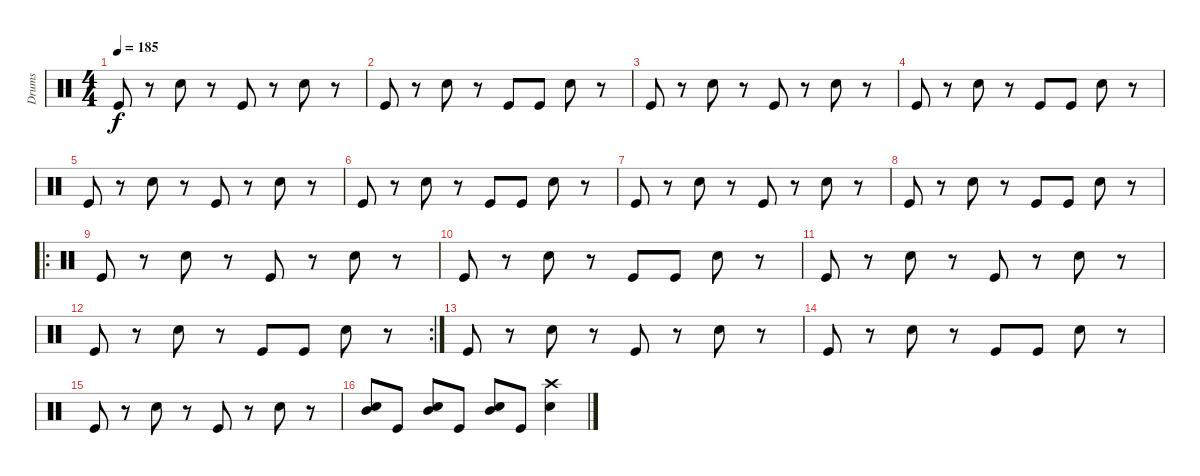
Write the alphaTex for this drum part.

\track ("Drums" "Drums") {instrument percussion}
\staff {score}
\articulation defaults
\ts (4 4)
\tempo 185
\clef neutral
\ks c "Kick (hit)".8{dy f}
r.8 "Snare (hit) 2".8 r.8 "Kick (hit)".8 r.8 "Snare (hit) 2".8 r.8 |
"Kick (hit)".8 r.8 "Snare (hit) 2".8 r.8 "Kick (hit)".8 "Kick (hit)".8 "Snare (hit) 2".8 r.8 |
"Kick (hit)".8 r.8 "Snare (hit) 2".8 r.8 "Kick (hit)".8 r.8 "Snare (hit) 2".8 r.8 |
"Kick (hit)".8 r.8 "Snare (hit) 2".8 r.8 "Kick (hit)".8 "Kick (hit)".8 "Snare (hit) 2".8 r.8 |
"Kick (hit)".8 r.8 "Snare (hit) 2".8 r.8 "Kick (hit)".8 r.8 "Snare (hit) 2".8 r.8 |
"Kick (hit)".8 r.8 "Snare (hit) 2".8 r.8 "Kick (hit)".8 "Kick (hit)".8 "Snare (hit) 2".8 r.8 |
"Kick (hit)".8 r.8 "Snare (hit) 2".8 r.8 "Kick (hit)".8 r.8 "Snare (hit) 2".8 r.8 |
"Kick (hit)".8 r.8 "Snare (hit) 2".8 r.8 "Kick (hit)".8 "Kick (hit)".8 "Snare (hit) 2".8 r.8 |
\ro "Kick (hit)".8
r.8 "Snare (hit) 2".8 r.8 "Kick (hit)".8 r.8 "Snare (hit) 2".8 r.8 |
"Kick (hit)".8 r.8 "Snare (hit) 2".8 r.8 "Kick (hit)".8 "Kick (hit)".8 "Snare (hit) 2".8 r.8 |
"Kick (hit)".8 r.8 "Snare (hit) 2".8 r.8 "Kick (hit)".8 r.8 "Snare (hit) 2".8 r.8 |
\rc 2 "Kick (hit)".8
r.8 "Snare (hit) 2".8 r.8 "Kick (hit)".8 "Kick (hit)".8 "Snare (hit) 2".8 r.8 |
"Kick (hit)".8 r.8 "Snare (hit) 2".8 r.8 "Kick (hit)".8 r.8 "Snare (hit) 2".8 r.8 |
"Kick (hit)".8 r.8 "Snare (hit) 2".8 r.8 "Kick (hit)".8 "Kick (hit)".8 "Snare (hit) 2".8 r.8 |
"Kick (hit)".8 r.8 "Snare (hit) 2".8 r.8 "Kick (hit)".8 r.8 "Snare (hit) 2".8 r.8 |
("Snare (hit) 2" "Mid Tom (hit)").8 "Kick (hit)".8 ("Snare (hit) 2" "Mid Tom (hit)").8 "Kick (hit)".8 ("Snare (hit) 2" "Mid Tom (hit)").8 "Kick (hit)".8 ("Crash high (hit)" "Snare (hit) 2").4
